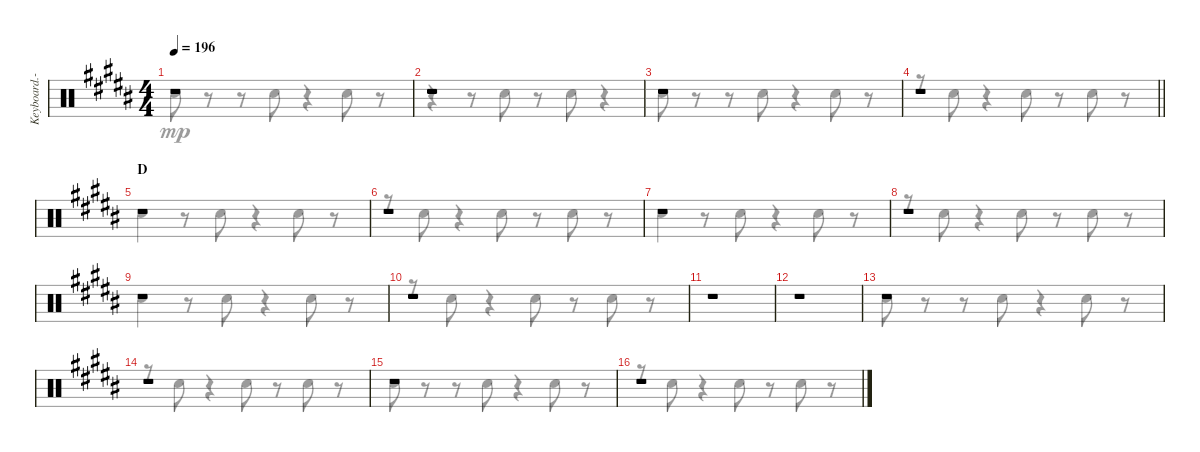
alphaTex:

\track ("Keyboard.-III" "Keyboard.-") {instrument percussion}
\staff {score}
\articulation defaults
\voice
\ts (4 4)
\tempo 196
\clef neutral
\ks b
r.1{dy mp} |
r.1 |
r.1 |
\barLineRight lightlight
r.1 |
\section ("" "D")
r.1 |
r.1 |
r.1 |
r.1 |
r.1 |
r.1 |
r.1 |
r.1 |
r.1 |
r.1 |
r.1 |
r.1
\voice
\clef neutral
\ottava regular
\simile none
\ks b "Hand Clap (hit)".8{dy mp}
r.8 r.8 "Hand Clap (hit)".8 r.4 "Hand Clap (hit)".8 r.8 |
r.4 r.8 "Hand Clap (hit)".8 r.8 "Hand Clap (hit)".8 r.4 |
"Hand Clap (hit)".8 r.8 r.8 "Hand Clap (hit)".8 r.4 "Hand Clap (hit)".8 r.8 |
\barLineRight lightlight
r.8 "Hand Clap (hit)".8 r.4 "Hand Clap (hit)".8 r.8 "Hand Clap (hit)".8 r.8 |
"Hand Clap (hit)".4 r.8 "Hand Clap (hit)".8 r.4 "Hand Clap (hit)".8 r.8 |
r.8 "Hand Clap (hit)".8 r.4 "Hand Clap (hit)".8 r.8 "Hand Clap (hit)".8 r.8 |
"Hand Clap (hit)".4 r.8 "Hand Clap (hit)".8 r.4 "Hand Clap (hit)".8 r.8 |
r.8 "Hand Clap (hit)".8 r.4 "Hand Clap (hit)".8 r.8 "Hand Clap (hit)".8 r.8 |
"Hand Clap (hit)".4 r.8 "Hand Clap (hit)".8 r.4 "Hand Clap (hit)".8 r.8 |
r.8 "Hand Clap (hit)".8 r.4 "Hand Clap (hit)".8 r.8 "Hand Clap (hit)".8 r.8 |
|
|
"Hand Clap (hit)".8 r.8 r.8 "Hand Clap (hit)".8 r.4 "Hand Clap (hit)".8 r.8 |
r.8 "Hand Clap (hit)".8 r.4 "Hand Clap (hit)".8 r.8 "Hand Clap (hit)".8 r.8 |
"Hand Clap (hit)".8 r.8 r.8 "Hand Clap (hit)".8 r.4 "Hand Clap (hit)".8 r.8 |
r.8 "Hand Clap (hit)".8 r.4 "Hand Clap (hit)".8 r.8 "Hand Clap (hit)".8 r.8
